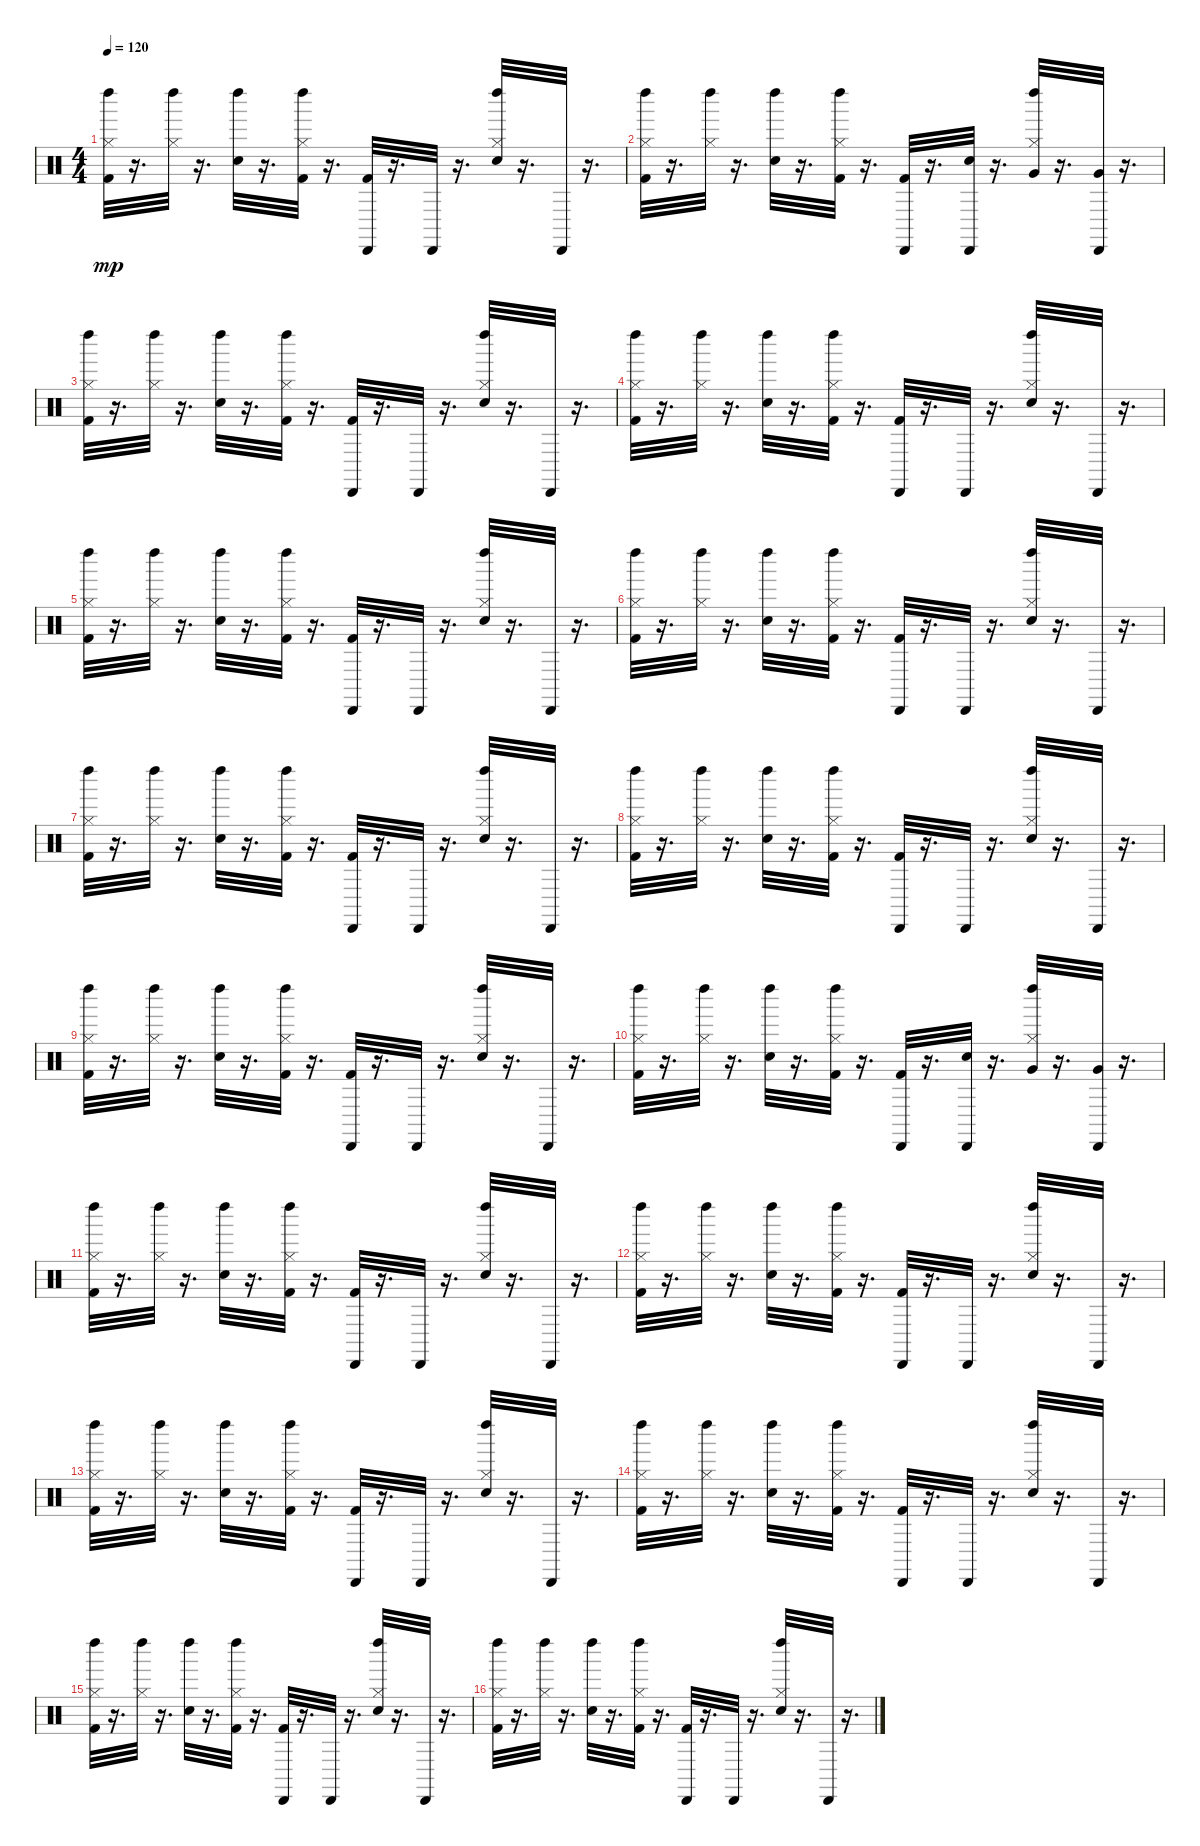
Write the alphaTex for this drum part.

\track "" {instrument percussion}
\staff {score}
\articulation defaults
\ts (4 4)
\tempo 120
\clef neutral
\ks c
("Left Maraca (hit)" "Hi-Hat (closed)" "Kick (hit) 2").32{dy mp} r.16{d} ("Left Maraca (hit)" "Hi-Hat (closed)").32 r.16{d} ("Left Maraca (hit)" "Electric Snare (hit)").32 r.16{d} ("Kick (hit) 2" "Left Maraca (hit)" "Hi-Hat (closed)").32 r.16{d} ("Kick (hit) 2" "Cabasa (hit)").32 r.16{d} "Cabasa (hit)".32 r.16{d} ("Hi-Hat (closed)" "Left Maraca (hit)" "Electric Snare (hit)").32 r.16{d} "Cabasa (hit)".32 r.16{d} |
("Left Maraca (hit)" "Hi-Hat (closed)" "Kick (hit) 2").32 r.16{d} ("Left Maraca (hit)" "Hi-Hat (closed)").32 r.16{d} ("Left Maraca (hit)" "Electric Snare (hit)").32 r.16{d} ("Kick (hit) 2" "Left Maraca (hit)" "Hi-Hat (closed)").32 r.16{d} ("Kick (hit) 2" "Cabasa (hit)").32 r.16{d} ("Cabasa (hit)" "Electric Snare (hit)").32 r.16{d} ("Very Low Tom (hit)" "Hi-Hat (closed)" "Left Maraca (hit)").32 r.16{d} ("Very Low Tom (hit)" "Cabasa (hit)").32 r.16{d} |
("Left Maraca (hit)" "Hi-Hat (closed)" "Kick (hit) 2").32 r.16{d} ("Left Maraca (hit)" "Hi-Hat (closed)").32 r.16{d} ("Left Maraca (hit)" "Electric Snare (hit)").32 r.16{d} ("Kick (hit) 2" "Left Maraca (hit)" "Hi-Hat (closed)").32 r.16{d} ("Kick (hit) 2" "Cabasa (hit)").32 r.16{d} "Cabasa (hit)".32 r.16{d} ("Hi-Hat (closed)" "Left Maraca (hit)" "Electric Snare (hit)").32 r.16{d} "Cabasa (hit)".32 r.16{d} |
("Left Maraca (hit)" "Hi-Hat (closed)" "Kick (hit) 2").32 r.16{d} ("Left Maraca (hit)" "Hi-Hat (closed)").32 r.16{d} ("Left Maraca (hit)" "Electric Snare (hit)").32 r.16{d} ("Kick (hit) 2" "Left Maraca (hit)" "Hi-Hat (closed)").32 r.16{d} ("Kick (hit) 2" "Cabasa (hit)").32 r.16{d} "Cabasa (hit)".32 r.16{d} ("Hi-Hat (closed)" "Left Maraca (hit)" "Electric Snare (hit)").32 r.16{d} "Cabasa (hit)".32 r.16{d} |
("Left Maraca (hit)" "Hi-Hat (closed)" "Kick (hit) 2").32 r.16{d} ("Left Maraca (hit)" "Hi-Hat (closed)").32 r.16{d} ("Left Maraca (hit)" "Electric Snare (hit)").32 r.16{d} ("Kick (hit) 2" "Left Maraca (hit)" "Hi-Hat (closed)").32 r.16{d} ("Kick (hit) 2" "Cabasa (hit)").32 r.16{d} "Cabasa (hit)".32 r.16{d} ("Hi-Hat (closed)" "Left Maraca (hit)" "Electric Snare (hit)").32 r.16{d} "Cabasa (hit)".32 r.16{d} |
("Left Maraca (hit)" "Hi-Hat (closed)" "Kick (hit) 2").32 r.16{d} ("Left Maraca (hit)" "Hi-Hat (closed)").32 r.16{d} ("Left Maraca (hit)" "Electric Snare (hit)").32 r.16{d} ("Kick (hit) 2" "Left Maraca (hit)" "Hi-Hat (closed)").32 r.16{d} ("Kick (hit) 2" "Cabasa (hit)").32 r.16{d} "Cabasa (hit)".32 r.16{d} ("Hi-Hat (closed)" "Left Maraca (hit)" "Electric Snare (hit)").32 r.16{d} "Cabasa (hit)".32 r.16{d} |
("Left Maraca (hit)" "Hi-Hat (closed)" "Kick (hit) 2").32 r.16{d} ("Left Maraca (hit)" "Hi-Hat (closed)").32 r.16{d} ("Left Maraca (hit)" "Electric Snare (hit)").32 r.16{d} ("Kick (hit) 2" "Left Maraca (hit)" "Hi-Hat (closed)").32 r.16{d} ("Kick (hit) 2" "Cabasa (hit)").32 r.16{d} "Cabasa (hit)".32 r.16{d} ("Hi-Hat (closed)" "Left Maraca (hit)" "Electric Snare (hit)").32 r.16{d} "Cabasa (hit)".32 r.16{d} |
("Left Maraca (hit)" "Hi-Hat (closed)" "Kick (hit) 2").32 r.16{d} ("Left Maraca (hit)" "Hi-Hat (closed)").32 r.16{d} ("Left Maraca (hit)" "Electric Snare (hit)").32 r.16{d} ("Kick (hit) 2" "Left Maraca (hit)" "Hi-Hat (closed)").32 r.16{d} ("Kick (hit) 2" "Cabasa (hit)").32 r.16{d} "Cabasa (hit)".32 r.16{d} ("Hi-Hat (closed)" "Left Maraca (hit)" "Electric Snare (hit)").32 r.16{d} "Cabasa (hit)".32 r.16{d} |
("Left Maraca (hit)" "Hi-Hat (closed)" "Kick (hit) 2").32 r.16{d} ("Left Maraca (hit)" "Hi-Hat (closed)").32 r.16{d} ("Left Maraca (hit)" "Electric Snare (hit)").32 r.16{d} ("Kick (hit) 2" "Left Maraca (hit)" "Hi-Hat (closed)").32 r.16{d} ("Kick (hit) 2" "Cabasa (hit)").32 r.16{d} "Cabasa (hit)".32 r.16{d} ("Hi-Hat (closed)" "Left Maraca (hit)" "Electric Snare (hit)").32 r.16{d} "Cabasa (hit)".32 r.16{d} |
("Left Maraca (hit)" "Hi-Hat (closed)" "Kick (hit) 2").32 r.16{d} ("Left Maraca (hit)" "Hi-Hat (closed)").32 r.16{d} ("Left Maraca (hit)" "Electric Snare (hit)").32 r.16{d} ("Kick (hit) 2" "Left Maraca (hit)" "Hi-Hat (closed)").32 r.16{d} ("Kick (hit) 2" "Cabasa (hit)").32 r.16{d} ("Cabasa (hit)" "Electric Snare (hit)").32 r.16{d} ("Very Low Tom (hit)" "Hi-Hat (closed)" "Left Maraca (hit)").32 r.16{d} ("Very Low Tom (hit)" "Cabasa (hit)").32 r.16{d} |
("Left Maraca (hit)" "Hi-Hat (closed)" "Kick (hit) 2").32 r.16{d} ("Left Maraca (hit)" "Hi-Hat (closed)").32 r.16{d} ("Left Maraca (hit)" "Electric Snare (hit)").32 r.16{d} ("Kick (hit) 2" "Left Maraca (hit)" "Hi-Hat (closed)").32 r.16{d} ("Kick (hit) 2" "Cabasa (hit)").32 r.16{d} "Cabasa (hit)".32 r.16{d} ("Hi-Hat (closed)" "Left Maraca (hit)" "Electric Snare (hit)").32 r.16{d} "Cabasa (hit)".32 r.16{d} |
("Left Maraca (hit)" "Hi-Hat (closed)" "Kick (hit) 2").32 r.16{d} ("Left Maraca (hit)" "Hi-Hat (closed)").32 r.16{d} ("Left Maraca (hit)" "Electric Snare (hit)").32 r.16{d} ("Kick (hit) 2" "Left Maraca (hit)" "Hi-Hat (closed)").32 r.16{d} ("Kick (hit) 2" "Cabasa (hit)").32 r.16{d} "Cabasa (hit)".32 r.16{d} ("Hi-Hat (closed)" "Left Maraca (hit)" "Electric Snare (hit)").32 r.16{d} "Cabasa (hit)".32 r.16{d} |
("Left Maraca (hit)" "Hi-Hat (closed)" "Kick (hit) 2").32 r.16{d} ("Left Maraca (hit)" "Hi-Hat (closed)").32 r.16{d} ("Left Maraca (hit)" "Electric Snare (hit)").32 r.16{d} ("Kick (hit) 2" "Left Maraca (hit)" "Hi-Hat (closed)").32 r.16{d} ("Kick (hit) 2" "Cabasa (hit)").32 r.16{d} "Cabasa (hit)".32 r.16{d} ("Hi-Hat (closed)" "Left Maraca (hit)" "Electric Snare (hit)").32 r.16{d} "Cabasa (hit)".32 r.16{d} |
("Left Maraca (hit)" "Hi-Hat (closed)" "Kick (hit) 2").32 r.16{d} ("Left Maraca (hit)" "Hi-Hat (closed)").32 r.16{d} ("Left Maraca (hit)" "Electric Snare (hit)").32 r.16{d} ("Kick (hit) 2" "Left Maraca (hit)" "Hi-Hat (closed)").32 r.16{d} ("Kick (hit) 2" "Cabasa (hit)").32 r.16{d} "Cabasa (hit)".32 r.16{d} ("Hi-Hat (closed)" "Left Maraca (hit)" "Electric Snare (hit)").32 r.16{d} "Cabasa (hit)".32 r.16{d} |
("Left Maraca (hit)" "Hi-Hat (closed)" "Kick (hit) 2").32 r.16{d} ("Left Maraca (hit)" "Hi-Hat (closed)").32 r.16{d} ("Left Maraca (hit)" "Electric Snare (hit)").32 r.16{d} ("Kick (hit) 2" "Left Maraca (hit)" "Hi-Hat (closed)").32 r.16{d} ("Kick (hit) 2" "Cabasa (hit)").32 r.16{d} "Cabasa (hit)".32 r.16{d} ("Hi-Hat (closed)" "Left Maraca (hit)" "Electric Snare (hit)").32 r.16{d} "Cabasa (hit)".32 r.16{d} |
("Left Maraca (hit)" "Hi-Hat (closed)" "Kick (hit) 2").32 r.16{d} ("Left Maraca (hit)" "Hi-Hat (closed)").32 r.16{d} ("Left Maraca (hit)" "Electric Snare (hit)").32 r.16{d} ("Kick (hit) 2" "Left Maraca (hit)" "Hi-Hat (closed)").32 r.16{d} ("Kick (hit) 2" "Cabasa (hit)").32 r.16{d} "Cabasa (hit)".32 r.16{d} ("Hi-Hat (closed)" "Left Maraca (hit)" "Electric Snare (hit)").32 r.16{d} "Cabasa (hit)".32 r.16{d}
